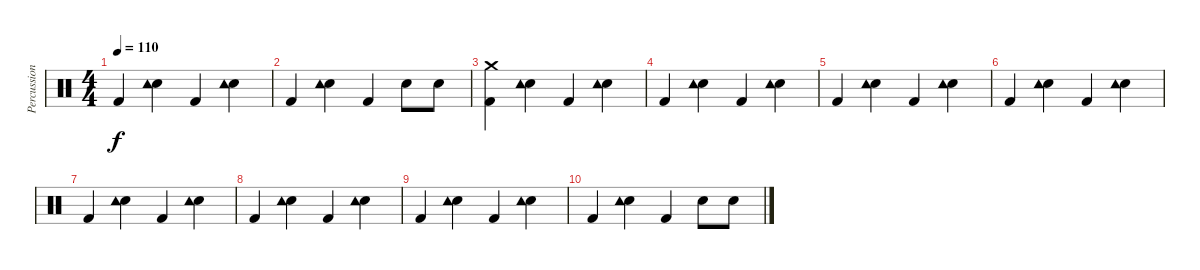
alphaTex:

\track ("Percussion" "Percussion") {instrument percussion}
\staff {score}
\articulation defaults
\ts (4 4)
\tempo 110
\clef neutral
\ks c "Kick (hit) 2".4{dy f}
("Electric Snare (hit)" "Tambourine (hit)").4 "Kick (hit) 2".4 ("Electric Snare (hit)" "Tambourine (hit)").4 |
"Kick (hit) 2".4 ("Electric Snare (hit)" "Tambourine (hit)").4 "Kick (hit) 2".4 "Snare (hit) 2".8 "Snare (hit) 2".8 |
("Kick (hit) 2" "Crash medium (hit)").4 ("Electric Snare (hit)" "Tambourine (hit)").4 "Kick (hit) 2".4 ("Electric Snare (hit)" "Tambourine (hit)").4 |
"Kick (hit) 2".4 ("Electric Snare (hit)" "Tambourine (hit)").4 "Kick (hit) 2".4 ("Electric Snare (hit)" "Tambourine (hit)").4 |
"Kick (hit) 2".4 ("Electric Snare (hit)" "Tambourine (hit)").4 "Kick (hit) 2".4 ("Electric Snare (hit)" "Tambourine (hit)").4 |
"Kick (hit) 2".4 ("Electric Snare (hit)" "Tambourine (hit)").4 "Kick (hit) 2".4 ("Electric Snare (hit)" "Tambourine (hit)").4 |
"Kick (hit) 2".4 ("Electric Snare (hit)" "Tambourine (hit)").4 "Kick (hit) 2".4 ("Electric Snare (hit)" "Tambourine (hit)").4 |
"Kick (hit) 2".4 ("Electric Snare (hit)" "Tambourine (hit)").4 "Kick (hit) 2".4 ("Electric Snare (hit)" "Tambourine (hit)").4 |
"Kick (hit) 2".4 ("Electric Snare (hit)" "Tambourine (hit)").4 "Kick (hit) 2".4 ("Electric Snare (hit)" "Tambourine (hit)").4 |
"Kick (hit) 2".4 ("Electric Snare (hit)" "Tambourine (hit)").4 "Kick (hit) 2".4 "Snare (hit) 2".8 "Snare (hit) 2".8
